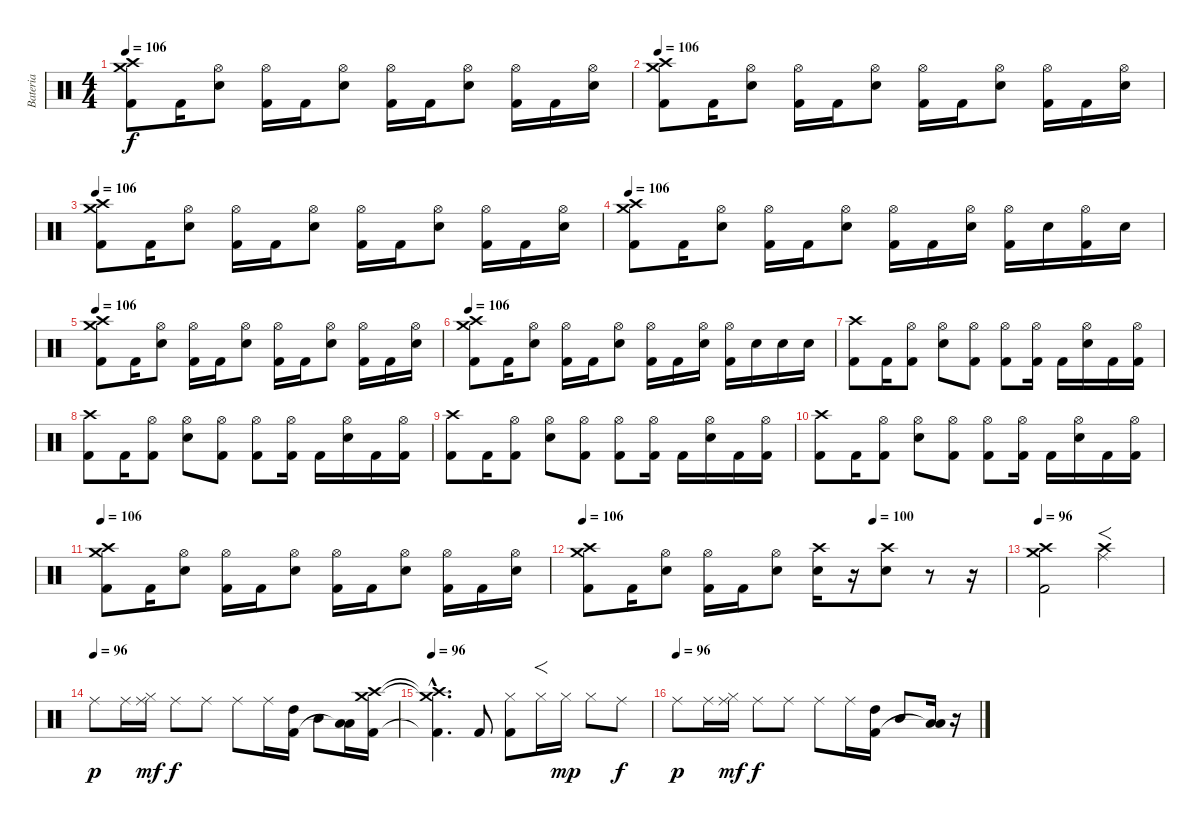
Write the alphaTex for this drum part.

\track ("Bateria" "Bateria") {instrument percussion}
\staff {score}
\articulation defaults
\ts (4 4)
\tempo 106
\clef neutral
\ks c
("Crash medium (hit)" "Crash high (hit)" "Kick (hit) 2").8{dy f} "Kick (hit) 2".16 ("Hi-Hat (open)" "Electric Snare (hit)").8 ("Hi-Hat (open)" "Kick (hit) 2").16 "Kick (hit) 2".16 ("Hi-Hat (open)" "Electric Snare (hit)").8 ("Hi-Hat (open)" "Kick (hit) 2").16 "Kick (hit) 2".16 ("Hi-Hat (open)" "Electric Snare (hit)").8 ("Hi-Hat (open)" "Kick (hit) 2").16 "Kick (hit) 2".16 ("Hi-Hat (open)" "Electric Snare (hit)").16 |
\tempo 106
("Crash medium (hit)" "Crash high (hit)" "Kick (hit) 2").8 "Kick (hit) 2".16 ("Hi-Hat (open)" "Electric Snare (hit)").8 ("Hi-Hat (open)" "Kick (hit) 2").16 "Kick (hit) 2".16 ("Hi-Hat (open)" "Electric Snare (hit)").8 ("Hi-Hat (open)" "Kick (hit) 2").16 "Kick (hit) 2".16 ("Hi-Hat (open)" "Electric Snare (hit)").8 ("Hi-Hat (open)" "Kick (hit) 2").16 "Kick (hit) 2".16 ("Hi-Hat (open)" "Electric Snare (hit)").16 |
\tempo 106
("Crash medium (hit)" "Crash high (hit)" "Kick (hit) 2").8 "Kick (hit) 2".16 ("Hi-Hat (open)" "Electric Snare (hit)").8 ("Hi-Hat (open)" "Kick (hit) 2").16 "Kick (hit) 2".16 ("Hi-Hat (open)" "Electric Snare (hit)").8 ("Hi-Hat (open)" "Kick (hit) 2").16 "Kick (hit) 2".16 ("Hi-Hat (open)" "Electric Snare (hit)").8 ("Hi-Hat (open)" "Kick (hit) 2").16 "Kick (hit) 2".16 ("Hi-Hat (open)" "Electric Snare (hit)").16 |
\tempo 106
("Crash medium (hit)" "Crash high (hit)" "Kick (hit) 2").8 "Kick (hit) 2".16 ("Hi-Hat (open)" "Electric Snare (hit)").8 ("Hi-Hat (open)" "Kick (hit) 2").16 "Kick (hit) 2".16 ("Hi-Hat (open)" "Electric Snare (hit)").8 ("Hi-Hat (open)" "Kick (hit) 2").16 "Kick (hit) 2".16 ("Hi-Hat (open)" "Electric Snare (hit)").16 ("Hi-Hat (open)" "Kick (hit) 2").16 "Electric Snare (hit)".16 ("Hi-Hat (open)" "Kick (hit) 2").16 "Electric Snare (hit)".16 |
\tempo 106
("Crash medium (hit)" "Crash high (hit)" "Kick (hit) 2").8 "Kick (hit) 2".16 ("Hi-Hat (open)" "Electric Snare (hit)").8 ("Hi-Hat (open)" "Kick (hit) 2").16 "Kick (hit) 2".16 ("Hi-Hat (open)" "Electric Snare (hit)").8 ("Hi-Hat (open)" "Kick (hit) 2").16 "Kick (hit) 2".16 ("Hi-Hat (open)" "Electric Snare (hit)").8 ("Hi-Hat (open)" "Kick (hit) 2").16 "Kick (hit) 2".16 ("Hi-Hat (open)" "Electric Snare (hit)").16 |
\tempo 106
("Crash medium (hit)" "Crash high (hit)" "Kick (hit) 2").8 "Kick (hit) 2".16 ("Hi-Hat (open)" "Electric Snare (hit)").8 ("Hi-Hat (open)" "Kick (hit) 2").16 "Kick (hit) 2".16 ("Hi-Hat (open)" "Electric Snare (hit)").8 ("Hi-Hat (open)" "Kick (hit) 2").16 "Kick (hit) 2".16 ("Hi-Hat (open)" "Electric Snare (hit)").16 ("Hi-Hat (open)" "Kick (hit) 2").16 "Electric Snare (hit)".16 "Electric Snare (hit)".16 "Electric Snare (hit)".16 |
("Kick (hit) 2" "Crash high (hit)").8 "Kick (hit) 2".16 ("Kick (hit) 2" "Hi-Hat (open)").8 ("Electric Snare (hit)" "Hi-Hat (open)").8 ("Kick (hit) 2" "Hi-Hat (open)").8 ("Kick (hit) 2" "Hi-Hat (open)").8 ("Kick (hit) 2" "Hi-Hat (open)").16 "Kick (hit) 2".16 ("Electric Snare (hit)" "Hi-Hat (open)").16 "Kick (hit) 2".16 ("Kick (hit) 2" "Hi-Hat (open)").16 |
("Kick (hit) 2" "Crash high (hit)").8 "Kick (hit) 2".16 ("Kick (hit) 2" "Hi-Hat (open)").8 ("Electric Snare (hit)" "Hi-Hat (open)").8 ("Kick (hit) 2" "Hi-Hat (open)").8 ("Kick (hit) 2" "Hi-Hat (open)").8 ("Kick (hit) 2" "Hi-Hat (open)").16 "Kick (hit) 2".16 ("Electric Snare (hit)" "Hi-Hat (open)").16 "Kick (hit) 2".16 ("Kick (hit) 2" "Hi-Hat (open)").16 |
("Kick (hit) 2" "Crash high (hit)").8 "Kick (hit) 2".16 ("Kick (hit) 2" "Hi-Hat (open)").8 ("Electric Snare (hit)" "Hi-Hat (open)").8 ("Kick (hit) 2" "Hi-Hat (open)").8 ("Kick (hit) 2" "Hi-Hat (open)").8 ("Kick (hit) 2" "Hi-Hat (open)").16 "Kick (hit) 2".16 ("Electric Snare (hit)" "Hi-Hat (open)").16 "Kick (hit) 2".16 ("Kick (hit) 2" "Hi-Hat (open)").16 |
("Kick (hit) 2" "Crash high (hit)").8 "Kick (hit) 2".16 ("Kick (hit) 2" "Hi-Hat (open)").8 ("Electric Snare (hit)" "Hi-Hat (open)").8 ("Kick (hit) 2" "Hi-Hat (open)").8 ("Kick (hit) 2" "Hi-Hat (open)").8 ("Kick (hit) 2" "Hi-Hat (open)").16 "Kick (hit) 2".16 ("Electric Snare (hit)" "Hi-Hat (open)").16 "Kick (hit) 2".16 ("Kick (hit) 2" "Hi-Hat (open)").16 |
\tempo 106
("Crash medium (hit)" "Crash high (hit)" "Kick (hit) 2").8 "Kick (hit) 2".16 ("Hi-Hat (open)" "Electric Snare (hit)").8 ("Hi-Hat (open)" "Kick (hit) 2").16 "Kick (hit) 2".16 ("Hi-Hat (open)" "Electric Snare (hit)").8 ("Hi-Hat (open)" "Kick (hit) 2").16 "Kick (hit) 2".16 ("Hi-Hat (open)" "Electric Snare (hit)").8 ("Hi-Hat (open)" "Kick (hit) 2").16 "Kick (hit) 2".16 ("Hi-Hat (open)" "Electric Snare (hit)").16 |
\tempo (100 0.6875)
\tempo 106
("Crash medium (hit)" "Crash high (hit)" "Kick (hit) 2").8 "Kick (hit) 2".16 ("Hi-Hat (open)" "Electric Snare (hit)").8 ("Hi-Hat (open)" "Kick (hit) 2").16 "Kick (hit) 2".16 ("Hi-Hat (open)" "Electric Snare (hit)").8 ("Crash high (hit)" "Electric Snare (hit)").16 r.16 ("Crash high (hit)" "Electric Snare (hit)").8 r.8 r.16 |
\tempo 96
("Crash medium (hit)" "Crash high (hit)" "Kick (hit) 2").2 ("Crash high (hit)" "Ride (middle)").2{f} |
\tempo (96)
"Ride (middle)".8{dy p} "Ride (middle)".16 ("Hi-Hat (closed)" "Ride (middle)").16{dy mf} "Ride (middle)".8{dy f} "Ride (middle)".8 "Ride (middle)".8 "Ride (middle)".16 ("High Tom (hit)" "Kick (hit) 2").16 "Mid Tom (hit)".8 ("Low Tom (hit)" "Low Tom (hit)"{t}).16 ("Crash high (hit)" "Crash medium (hit)" "Kick (hit) 2").16 |
\tempo 96
("Crash high (hit)"{hac t} "Crash medium (hit)"{hac t} "Kick (hit) 2"{hac t}).4{d} "Kick (hit) 2".8 ("Hi-Hat (closed)" "Kick (hit) 2").8 "Hi-Hat (closed)".16{f} "Hi-Hat (closed)".16{dy mp} "Hi-Hat (closed)".8 "Ride (middle)".8{dy f} |
\tempo (96)
"Ride (middle)".8{dy p} "Ride (middle)".16 ("Hi-Hat (closed)" "Ride (middle)").16{dy mf} "Ride (middle)".8{dy f} "Ride (middle)".8 "Ride (middle)".8 "Ride (middle)".16 ("High Tom (hit)" "Kick (hit) 2").16 "Mid Tom (hit)".8 ("Low Tom (hit)" "Low Tom (hit)"{t}).16 r.16
